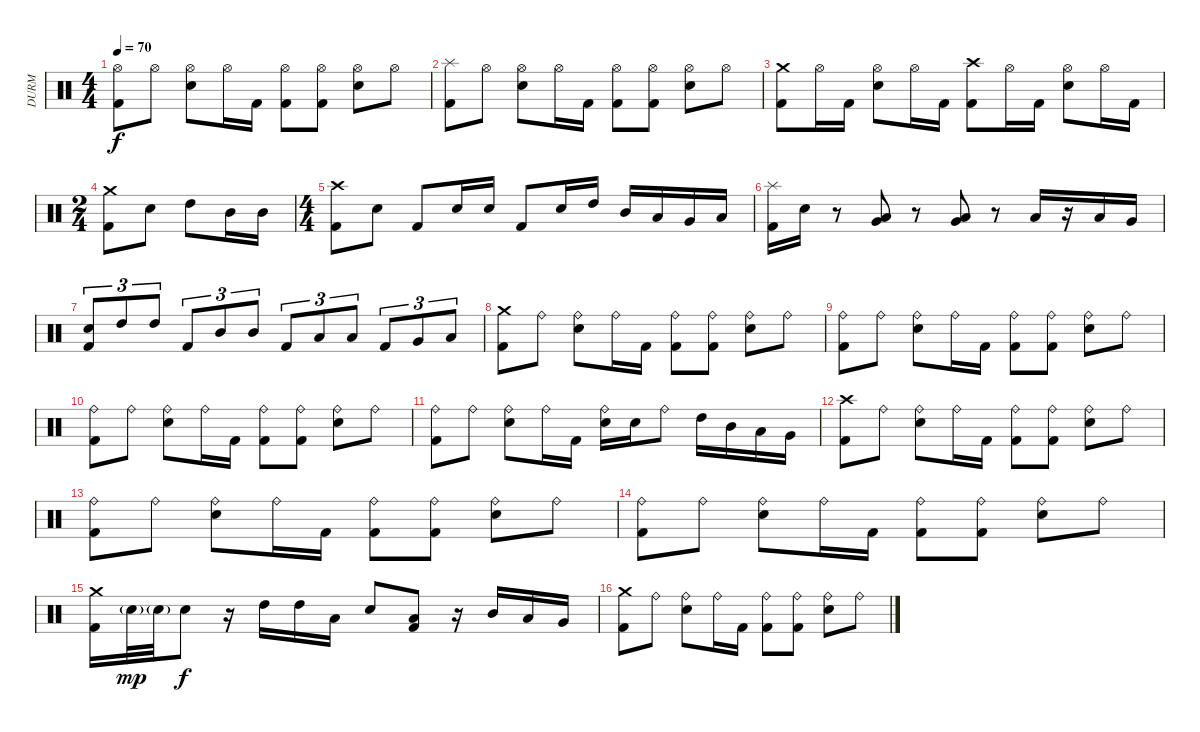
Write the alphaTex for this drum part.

\track ("DURM" "DURM") {instrument percussion}
\staff {score}
\articulation defaults
\ts (4 4)
\tempo 70
\clef neutral
\ks c
("Hi-Hat (open)" "Kick (hit) 2").8{dy f} "Hi-Hat (open)".8 ("Hi-Hat (open)" "Snare (hit) 2").8 "Hi-Hat (open)".16 "Kick (hit) 2".16 ("Hi-Hat (open)" "Kick (hit) 2").8 ("Hi-Hat (open)" "Kick (hit) 2").8 ("Hi-Hat (open)" "Snare (hit) 2").8 "Hi-Hat (open)".8 |
("Splash (hit)" "Kick (hit) 2").8 "Hi-Hat (open)".8 ("Hi-Hat (open)" "Snare (hit) 2").8 "Hi-Hat (open)".16 "Kick (hit) 2".16 ("Hi-Hat (open)" "Kick (hit) 2").8 ("Hi-Hat (open)" "Kick (hit) 2").8 ("Hi-Hat (open)" "Snare (hit) 2").8 "Hi-Hat (open)".8 |
("Crash medium (hit)" "Kick (hit) 2").8 "Hi-Hat (open)".16 "Kick (hit) 2".16 ("Hi-Hat (open)" "Snare (hit) 2").8 "Hi-Hat (open)".16 "Kick (hit) 2".16 ("Crash high (hit)" "Kick (hit) 2").8 "Hi-Hat (open)".16 "Kick (hit) 2".16 ("Hi-Hat (open)" "Snare (hit) 2").8 "Hi-Hat (open)".16 "Kick (hit) 2".16 |
\ts (2 4)
("Crash medium (hit)" "Kick (hit) 2").8 "Snare (hit) 2".8 "High Tom (hit)".8 "Mid Tom (hit)".16 "Mid Tom (hit)".16 |
\ts (4 4)
("Crash high (hit)" "Kick (hit) 2").8 "Snare (hit) 2".8 "Kick (hit) 2".8 "Snare (hit) 2".16 "Snare (hit) 2".16 "Kick (hit) 2".8 "Snare (hit) 2".16 "High Tom (hit)".16 "Mid Tom (hit)".16 "Low Tom (hit)".16 "Very Low Tom (hit)".16 "Low Floor Tom (hit)".16 |
("Splash (hit)" "Kick (hit) 2").16 "Snare (hit) 2".16 r.8 ("Very Low Tom (hit)" "Low Tom (hit)").8 r.8 ("Low Floor Tom (hit)" "Very Low Tom (hit)").8 r.8 "Low Floor Tom (hit)".16 r.16 "Low Tom (hit)".16 "Very Low Tom (hit)".16 |
("Snare (hit) 2" "Kick (hit) 2").8{tu (3 2)} "High Tom (hit)".8{tu (3 2)} "High Tom (hit)".8{tu (3 2)} "Kick (hit) 2".8{tu (3 2)} "Mid Tom (hit)".8{tu (3 2)} "Mid Tom (hit)".8{tu (3 2)} "Kick (hit) 2".8{tu (3 2)} "Low Tom (hit)".8{tu (3 2)} "Low Tom (hit)".8{tu (3 2)} "Kick (hit) 2".8{tu (3 2)} "Very Low Tom (hit)".8{tu (3 2)} "Low Floor Tom (hit)".8{tu (3 2)} |
("Crash medium (hit)" "Kick (hit) 2").8 "Ride (bell)".8 ("Ride (bell)" "Snare (hit) 2").8 "Ride (bell)".16 "Kick (hit) 2".16 ("Ride (bell)" "Kick (hit) 2").8 ("Ride (bell)" "Kick (hit) 2").8 ("Ride (bell)" "Snare (hit) 2").8 "Ride (bell)".8 |
("Ride (bell)" "Kick (hit) 2").8 "Ride (bell)".8 ("Ride (bell)" "Snare (hit) 2").8 "Ride (bell)".16 "Kick (hit) 2".16 ("Ride (bell)" "Kick (hit) 2").8 ("Ride (bell)" "Kick (hit) 2").8 ("Ride (bell)" "Snare (hit) 2").8 "Ride (bell)".8 |
("Ride (bell)" "Kick (hit) 2").8 "Ride (bell)".8 ("Ride (bell)" "Snare (hit) 2").8 "Ride (bell)".16 "Kick (hit) 2".16 ("Ride (bell)" "Kick (hit) 2").8 ("Ride (bell)" "Kick (hit) 2").8 ("Ride (bell)" "Snare (hit) 2").8 "Ride (bell)".8 |
("Ride (bell)" "Kick (hit) 2").8 "Ride (bell)".8 ("Ride (bell)" "Snare (hit) 2").8 "Ride (bell)".16 "Kick (hit) 2".16 ("Ride (bell)" "Snare (hit) 2").16 "Snare (hit) 2".16 "Ride (bell)".8 "High Tom (hit)".16 "Mid Tom (hit)".16 "Low Tom (hit)".16 "Very Low Tom (hit)".16 |
("Crash high (hit)" "Kick (hit) 2").8 "Ride (bell)".8 ("Ride (bell)" "Snare (hit) 2").8 "Ride (bell)".16 "Kick (hit) 2".16 ("Ride (bell)" "Kick (hit) 2").8 ("Ride (bell)" "Kick (hit) 2").8 ("Ride (bell)" "Snare (hit) 2").8 "Ride (bell)".8 |
("Ride (bell)" "Kick (hit) 2").8 "Ride (bell)".8 ("Ride (bell)" "Snare (hit) 2").8 "Ride (bell)".16 "Kick (hit) 2".16 ("Ride (bell)" "Kick (hit) 2").8 ("Ride (bell)" "Kick (hit) 2").8 ("Ride (bell)" "Snare (hit) 2").8 "Ride (bell)".8 |
("Ride (bell)" "Kick (hit) 2").8 "Ride (bell)".8 ("Ride (bell)" "Snare (hit) 2").8 "Ride (bell)".16 "Kick (hit) 2".16 ("Ride (bell)" "Kick (hit) 2").8 ("Ride (bell)" "Kick (hit) 2").8 ("Ride (bell)" "Snare (hit) 2").8 "Ride (bell)".8 |
("Crash medium (hit)" "Kick (hit) 2").16 "Snare (hit) 2"{g}.32{dy mp} "Snare (hit) 2"{g}.32 "Snare (hit) 2".8{dy f} r.16 "High Tom (hit)".16 "High Tom (hit)".16 "Low Floor Tom (hit)".16 "Snare (hit) 2".8 ("Low Tom (hit)" "Kick (hit) 2").8 r.16 "Mid Tom (hit)".16 "Low Tom (hit)".16 "Very Low Tom (hit)".16 |
("Crash medium (hit)" "Kick (hit) 2").8 "Ride (bell)".8 ("Ride (bell)" "Snare (hit) 2").8 "Ride (bell)".16 "Kick (hit) 2".16 ("Ride (bell)" "Kick (hit) 2").8 ("Ride (bell)" "Kick (hit) 2").8 ("Ride (bell)" "Snare (hit) 2").8 "Ride (bell)".8
